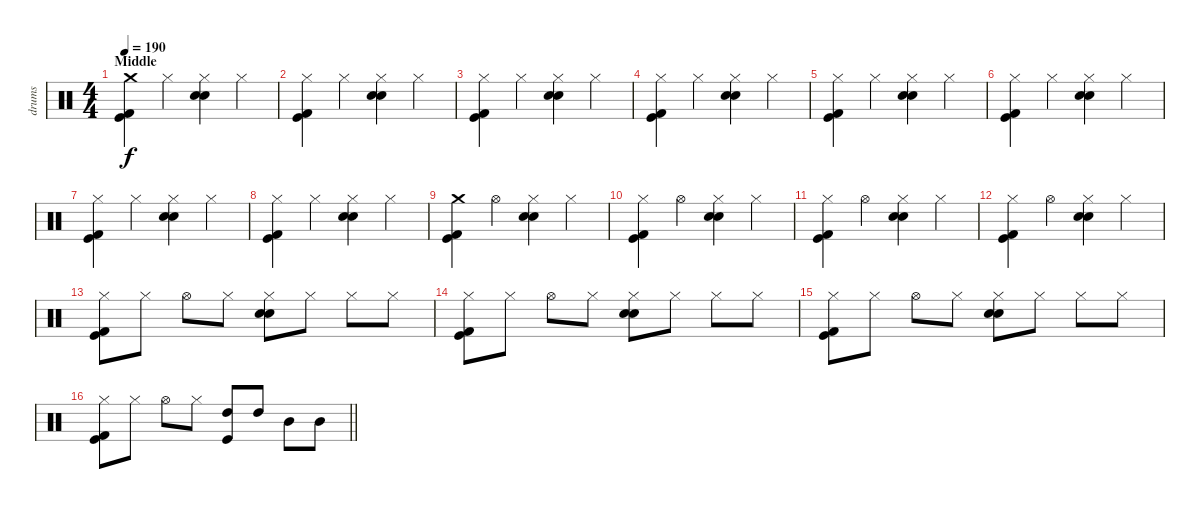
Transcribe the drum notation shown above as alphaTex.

\track ("drums" "drums") {instrument percussion}
\staff {score}
\articulation defaults
\ts (4 4)
\section ("" "Middle")
\tempo 190
\clef neutral
\ks c
("Crash medium (hit)" "Kick (hit) 2" "Kick (hit)").4{dy f} "Hi-Hat (closed)".4 ("Hi-Hat (closed)" "Electric Snare (hit)" "Snare (hit) 2").4 "Hi-Hat (closed)".4 |
("Hi-Hat (closed)" "Kick (hit) 2" "Kick (hit)").4 "Hi-Hat (closed)".4 ("Hi-Hat (closed)" "Electric Snare (hit)" "Snare (hit) 2").4 "Hi-Hat (closed)".4 |
("Hi-Hat (closed)" "Kick (hit) 2" "Kick (hit)").4 "Hi-Hat (closed)".4 ("Hi-Hat (closed)" "Electric Snare (hit)" "Snare (hit) 2").4 "Hi-Hat (closed)".4 |
("Hi-Hat (closed)" "Kick (hit) 2" "Kick (hit)").4 "Hi-Hat (closed)".4 ("Hi-Hat (closed)" "Electric Snare (hit)" "Snare (hit) 2").4 "Hi-Hat (closed)".4 |
("Hi-Hat (closed)" "Kick (hit) 2" "Kick (hit)").4 "Hi-Hat (closed)".4 ("Hi-Hat (closed)" "Electric Snare (hit)" "Snare (hit) 2").4 "Hi-Hat (closed)".4 |
("Hi-Hat (closed)" "Kick (hit) 2" "Kick (hit)").4 "Hi-Hat (closed)".4 ("Hi-Hat (closed)" "Electric Snare (hit)" "Snare (hit) 2").4 "Hi-Hat (closed)".4 |
("Hi-Hat (closed)" "Kick (hit) 2" "Kick (hit)").4 "Hi-Hat (closed)".4 ("Hi-Hat (closed)" "Electric Snare (hit)" "Snare (hit) 2").4 "Hi-Hat (closed)".4 |
("Hi-Hat (closed)" "Kick (hit) 2" "Kick (hit)").4 "Hi-Hat (closed)".4 ("Hi-Hat (closed)" "Electric Snare (hit)" "Snare (hit) 2").4 "Hi-Hat (closed)".4 |
("Crash medium (hit)" "Kick (hit) 2" "Kick (hit)").4 "Hi-Hat (open)".4 ("Hi-Hat (closed)" "Electric Snare (hit)" "Snare (hit) 2").4 "Hi-Hat (closed)".4 |
("Hi-Hat (closed)" "Kick (hit) 2" "Kick (hit)").4 "Hi-Hat (open)".4 ("Hi-Hat (closed)" "Electric Snare (hit)" "Snare (hit) 2").4 "Hi-Hat (closed)".4 |
("Hi-Hat (closed)" "Kick (hit) 2" "Kick (hit)").4 "Hi-Hat (open)".4 ("Hi-Hat (closed)" "Electric Snare (hit)" "Snare (hit) 2").4 "Hi-Hat (closed)".4 |
("Hi-Hat (closed)" "Kick (hit) 2" "Kick (hit)").4 "Hi-Hat (open)".4 ("Hi-Hat (closed)" "Electric Snare (hit)" "Snare (hit) 2").4 "Hi-Hat (closed)".4 |
("Hi-Hat (closed)" "Kick (hit) 2" "Kick (hit)").8 "Hi-Hat (closed)".8 "Hi-Hat (open)".8 "Hi-Hat (closed)".8 ("Hi-Hat (closed)" "Snare (hit) 2" "Electric Snare (hit)").8 "Hi-Hat (closed)".8 "Hi-Hat (closed)".8 "Hi-Hat (closed)".8 |
("Hi-Hat (closed)" "Kick (hit) 2" "Kick (hit)").8 "Hi-Hat (closed)".8 "Hi-Hat (open)".8 "Hi-Hat (closed)".8 ("Hi-Hat (closed)" "Snare (hit) 2" "Electric Snare (hit)").8 "Hi-Hat (closed)".8 "Hi-Hat (closed)".8 "Hi-Hat (closed)".8 |
("Hi-Hat (closed)" "Kick (hit) 2" "Kick (hit)").8 "Hi-Hat (closed)".8 "Hi-Hat (open)".8 "Hi-Hat (closed)".8 ("Hi-Hat (closed)" "Snare (hit) 2" "Electric Snare (hit)").8 "Hi-Hat (closed)".8 "Hi-Hat (closed)".8 "Hi-Hat (closed)".8 |
\barLineRight lightlight
("Hi-Hat (closed)" "Kick (hit) 2" "Kick (hit)").8 "Hi-Hat (closed)".8 "Hi-Hat (open)".8 "Hi-Hat (closed)".8 ("High Tom (hit)" "Kick (hit)").8 "High Tom (hit)".8 "Mid Tom (hit)".8 "Mid Tom (hit)".8
